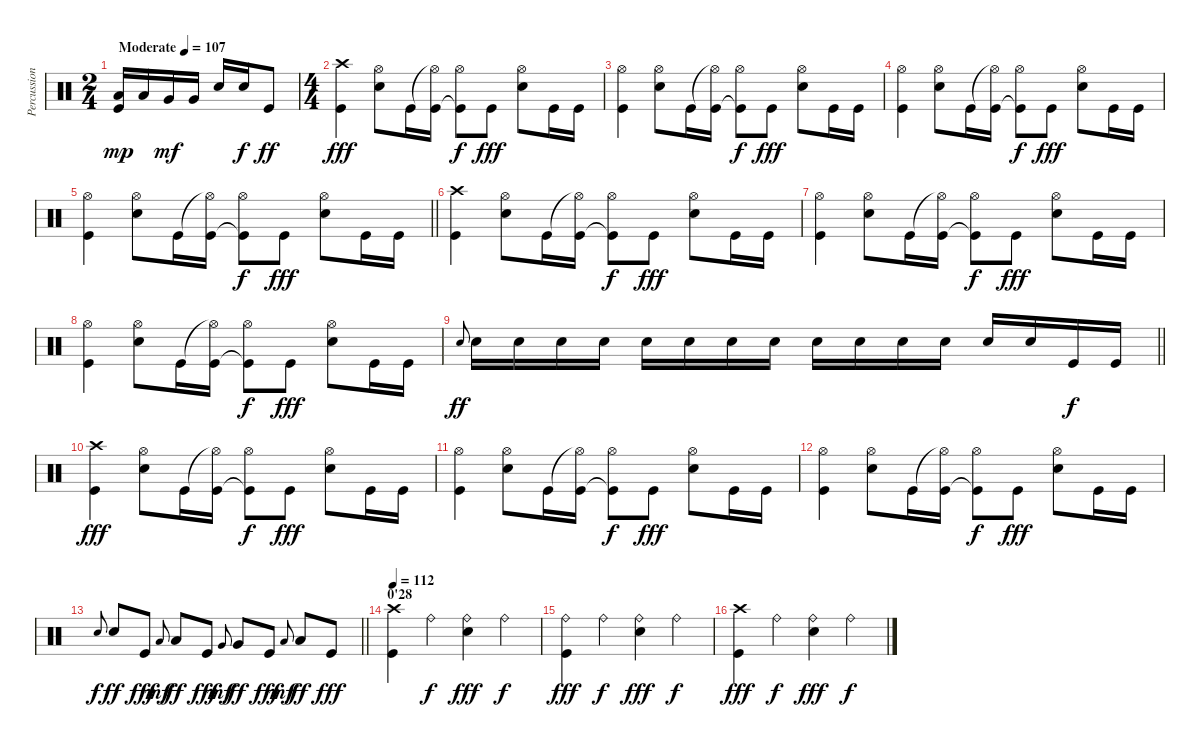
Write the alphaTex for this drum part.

\track ("Percussions" "Percussion") {instrument percussion}
\staff {score}
\articulation defaults
\ts (2 4)
\tempo (107 "Moderate")
\clef neutral
\ks c
("Low Floor Tom (hit)" "Kick (hit)").16{dy mp} "Low Floor Tom (hit)".16 "Very Low Tom (hit)".16{dy mf} "Very Low Tom (hit)".16 "Electric Snare (hit)".16 "Electric Snare (hit)".16{dy f} "Kick (hit)".8{dy ff} |
\ts (4 4)
("Crash high (hit)" "Kick (hit)").4{dy fff} ("Hi-Hat (open)" "Electric Snare (hit)").8 "Kick (hit)".16 ("Hi-Hat (open)"{t} "Kick (hit)").16 ("Hi-Hat (open)" "Kick (hit)"{t}).8{dy f} "Kick (hit)".8{dy fff} ("Hi-Hat (open)" "Electric Snare (hit)").8 "Kick (hit)".16 "Kick (hit)".16 |
("Hi-Hat (open)" "Kick (hit)").4 ("Hi-Hat (open)" "Electric Snare (hit)").8 "Kick (hit)".16 ("Hi-Hat (open)"{t} "Kick (hit)").16 ("Hi-Hat (open)" "Kick (hit)"{t}).8{dy f} "Kick (hit)".8{dy fff} ("Hi-Hat (open)" "Electric Snare (hit)").8 "Kick (hit)".16 "Kick (hit)".16 |
("Hi-Hat (open)" "Kick (hit)").4 ("Hi-Hat (open)" "Electric Snare (hit)").8 "Kick (hit)".16 ("Hi-Hat (open)"{t} "Kick (hit)").16 ("Hi-Hat (open)" "Kick (hit)"{t}).8{dy f} "Kick (hit)".8{dy fff} ("Hi-Hat (open)" "Electric Snare (hit)").8 "Kick (hit)".16 "Kick (hit)".16 |
\barLineRight lightlight
("Hi-Hat (open)" "Kick (hit)").4 ("Hi-Hat (open)" "Electric Snare (hit)").8 "Kick (hit)".16 ("Hi-Hat (open)"{t} "Kick (hit)").16 ("Hi-Hat (open)" "Kick (hit)"{t}).8{dy f} "Kick (hit)".8{dy fff} ("Hi-Hat (open)" "Electric Snare (hit)").8 "Kick (hit)".16 "Kick (hit)".16 |
("Crash high (hit)" "Kick (hit)").4 ("Hi-Hat (open)" "Electric Snare (hit)").8 "Kick (hit)".16 ("Hi-Hat (open)"{t} "Kick (hit)").16 ("Hi-Hat (open)" "Kick (hit)"{t}).8{dy f} "Kick (hit)".8{dy fff} ("Hi-Hat (open)" "Electric Snare (hit)").8 "Kick (hit)".16 "Kick (hit)".16 |
("Hi-Hat (open)" "Kick (hit)").4 ("Hi-Hat (open)" "Electric Snare (hit)").8 "Kick (hit)".16 ("Hi-Hat (open)"{t} "Kick (hit)").16 ("Hi-Hat (open)" "Kick (hit)"{t}).8{dy f} "Kick (hit)".8{dy fff} ("Hi-Hat (open)" "Electric Snare (hit)").8 "Kick (hit)".16 "Kick (hit)".16 |
("Hi-Hat (open)" "Kick (hit)").4 ("Hi-Hat (open)" "Electric Snare (hit)").8 "Kick (hit)".16 ("Hi-Hat (open)"{t} "Kick (hit)").16 ("Hi-Hat (open)" "Kick (hit)"{t}).8{dy f} "Kick (hit)".8{dy fff} ("Hi-Hat (open)" "Electric Snare (hit)").8 "Kick (hit)".16 "Kick (hit)".16 |
\barLineRight lightlight "Electric Snare (hit)".8{gr onbeat dy ff} "Electric Snare (hit)".16 "Electric Snare (hit)".16 "Electric Snare (hit)".16 "Electric Snare (hit)".16 "Electric Snare (hit)".16 "Electric Snare (hit)".16 "Electric Snare (hit)".16 "Electric Snare (hit)".16 "Electric Snare (hit)".16 "Electric Snare (hit)".16 "Electric Snare (hit)".16 "Electric Snare (hit)".16 "Electric Snare (hit)".16 "Electric Snare (hit)".16 "Kick (hit)".16{dy f} "Kick (hit)".16
|
("Crash high (hit)" "Kick (hit)").4{dy fff} ("Hi-Hat (open)" "Electric Snare (hit)").8 "Kick (hit)".16 ("Hi-Hat (open)"{t} "Kick (hit)").16 ("Hi-Hat (open)" "Kick (hit)"{t}).8{dy f} "Kick (hit)".8{dy fff} ("Hi-Hat (open)" "Electric Snare (hit)").8 "Kick (hit)".16 "Kick (hit)".16 |
("Hi-Hat (open)" "Kick (hit)").4 ("Hi-Hat (open)" "Electric Snare (hit)").8 "Kick (hit)".16 ("Hi-Hat (open)"{t} "Kick (hit)").16 ("Hi-Hat (open)" "Kick (hit)"{t}).8{dy f} "Kick (hit)".8{dy fff} ("Hi-Hat (open)" "Electric Snare (hit)").8 "Kick (hit)".16 "Kick (hit)".16 |
("Hi-Hat (open)" "Kick (hit)").4 ("Hi-Hat (open)" "Electric Snare (hit)").8 "Kick (hit)".16 ("Hi-Hat (open)"{t} "Kick (hit)").16 ("Hi-Hat (open)" "Kick (hit)"{t}).8{dy f} "Kick (hit)".8{dy fff} ("Hi-Hat (open)" "Electric Snare (hit)").8 "Kick (hit)".16 "Kick (hit)".16 |
\barLineRight lightlight "Electric Snare (hit)".8{gr onbeat dy f} "Electric Snare (hit)".8{dy ff} "Kick (hit)".8{dy fff} "Low Tom (hit)".8{gr onbeat dy mf beam merge} "Low Tom (hit)".8{dy ff} "Kick (hit)".8{dy fff} "Very Low Tom (hit)".8{gr onbeat dy mf} "Very Low Tom (hit)".8{dy ff} "Kick (hit)".8{dy fff} "Low Floor Tom (hit)".8{gr onbeat dy mf} "Low Floor Tom (hit)".8{dy ff} "Kick (hit)".8{dy fff}
|
\section ("" "0'28")
\tempo 112
("Crash high (hit)" "Kick (hit)").4 "Ride (bell)".4{dy f} ("Ride (bell)" "Electric Snare (hit)").4{dy fff} "Ride (bell)".4{dy f} |
("Ride (bell)" "Kick (hit)").4{dy fff} "Ride (bell)".4{dy f} ("Ride (bell)" "Electric Snare (hit)").4{dy fff} "Ride (bell)".4{dy f} |
("Crash high (hit)" "Kick (hit)").4{dy fff} "Ride (bell)".4{dy f} ("Ride (bell)" "Electric Snare (hit)").4{dy fff} "Ride (bell)".4{dy f}
